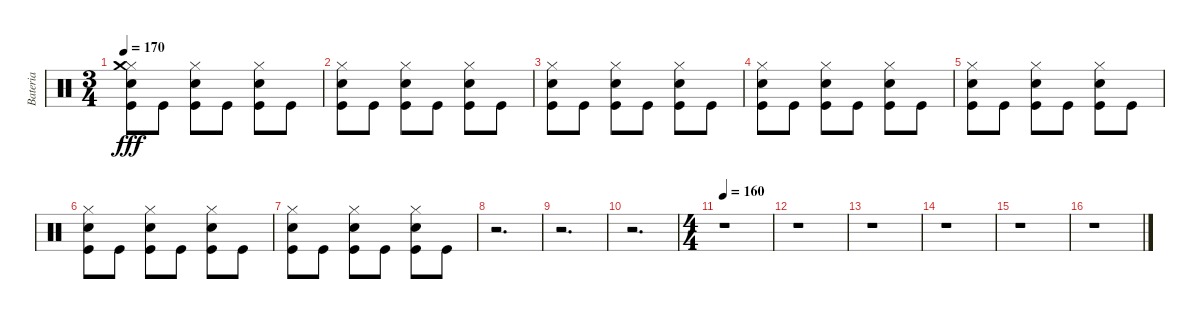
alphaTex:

\track ("Bateria" "Bateria") {instrument percussion}
\staff {score}
\articulation defaults
\ts (3 4)
\tempo 170
\clef neutral
\ks c
("Kick (hit)" "Snare (hit) 2" "Hi-Hat (closed)" "Crash medium (hit)").8{dy fff} "Kick (hit)".8 ("Kick (hit)" "Snare (hit) 2" "Hi-Hat (closed)").8 "Kick (hit)".8 ("Kick (hit)" "Snare (hit) 2" "Hi-Hat (closed)").8 "Kick (hit)".8 |
("Kick (hit)" "Snare (hit) 2" "Hi-Hat (closed)").8 "Kick (hit)".8 ("Kick (hit)" "Snare (hit) 2" "Hi-Hat (closed)").8 "Kick (hit)".8 ("Kick (hit)" "Snare (hit) 2" "Hi-Hat (closed)").8 "Kick (hit)".8 |
("Kick (hit)" "Snare (hit) 2" "Hi-Hat (closed)").8 "Kick (hit)".8 ("Kick (hit)" "Snare (hit) 2" "Hi-Hat (closed)").8 "Kick (hit)".8 ("Kick (hit)" "Snare (hit) 2" "Hi-Hat (closed)").8 "Kick (hit)".8 |
("Kick (hit)" "Snare (hit) 2" "Hi-Hat (closed)").8 "Kick (hit)".8 ("Kick (hit)" "Snare (hit) 2" "Hi-Hat (closed)").8 "Kick (hit)".8 ("Kick (hit)" "Snare (hit) 2" "Hi-Hat (closed)").8 "Kick (hit)".8 |
("Kick (hit)" "Snare (hit) 2" "Hi-Hat (closed)").8 "Kick (hit)".8 ("Kick (hit)" "Snare (hit) 2" "Hi-Hat (closed)").8 "Kick (hit)".8 ("Kick (hit)" "Snare (hit) 2" "Hi-Hat (closed)").8 "Kick (hit)".8 |
("Kick (hit)" "Snare (hit) 2" "Hi-Hat (closed)").8 "Kick (hit)".8 ("Kick (hit)" "Snare (hit) 2" "Hi-Hat (closed)").8 "Kick (hit)".8 ("Kick (hit)" "Snare (hit) 2" "Hi-Hat (closed)").8 "Kick (hit)".8 |
("Kick (hit)" "Snare (hit) 2" "Hi-Hat (closed)").8 "Kick (hit)".8 ("Kick (hit)" "Snare (hit) 2" "Hi-Hat (closed)").8 "Kick (hit)".8 ("Kick (hit)" "Snare (hit) 2" "Hi-Hat (closed)").8 "Kick (hit)".8 |
r.2{d} |
r.2{d} |
r.2{d} |
\ts (4 4)
\tempo 160
r.1 |
r.1 |
r.1 |
r.1 |
r.1 |
r.1
